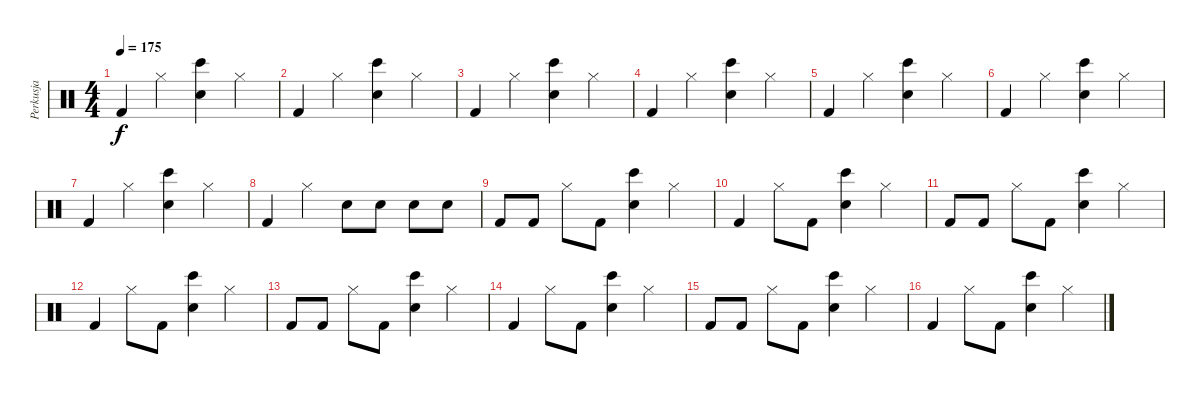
\track ("Perkusja" "Perkusja") {instrument percussion}
\staff {score}
\articulation defaults
\ts (4 4)
\tempo 175
\clef neutral
\ks c "Kick (hit) 2".4{dy f} "Hi-Hat (closed)".4
("Snare (hit) 2" "Bongo High (hit)").4 "Hi-Hat (closed)".4 |
"Kick (hit) 2".4 "Hi-Hat (closed)".4 ("Snare (hit) 2" "Bongo High (hit)").4 "Hi-Hat (closed)".4 |
"Kick (hit) 2".4 "Hi-Hat (closed)".4 ("Snare (hit) 2" "Bongo High (hit)").4 "Hi-Hat (closed)".4 |
"Kick (hit) 2".4 "Hi-Hat (closed)".4 ("Snare (hit) 2" "Bongo High (hit)").4 "Hi-Hat (closed)".4 |
"Kick (hit) 2".4 "Hi-Hat (closed)".4 ("Snare (hit) 2" "Bongo High (hit)").4 "Hi-Hat (closed)".4 |
"Kick (hit) 2".4 "Hi-Hat (closed)".4 ("Snare (hit) 2" "Bongo High (hit)").4 "Hi-Hat (closed)".4 |
"Kick (hit) 2".4 "Hi-Hat (closed)".4 ("Snare (hit) 2" "Bongo High (hit)").4 "Hi-Hat (closed)".4 |
"Kick (hit) 2".4 "Hi-Hat (closed)".4 "Snare (hit) 2".8 "Snare (hit) 2".8 "Snare (hit) 2".8 "Snare (hit) 2".8 |
"Kick (hit) 2".8 "Kick (hit) 2".8 "Hi-Hat (closed)".8 "Kick (hit) 2".8 ("Bongo High (hit)" "Snare (hit) 2").4 "Hi-Hat (closed)".4 |
"Kick (hit) 2".4 "Hi-Hat (closed)".8 "Kick (hit) 2".8 ("Bongo High (hit)" "Snare (hit) 2").4 "Hi-Hat (closed)".4 |
"Kick (hit) 2".8 "Kick (hit) 2".8 "Hi-Hat (closed)".8 "Kick (hit) 2".8 ("Bongo High (hit)" "Snare (hit) 2").4 "Hi-Hat (closed)".4 |
"Kick (hit) 2".4 "Hi-Hat (closed)".8 "Kick (hit) 2".8 ("Bongo High (hit)" "Snare (hit) 2").4 "Hi-Hat (closed)".4 |
"Kick (hit) 2".8 "Kick (hit) 2".8 "Hi-Hat (closed)".8 "Kick (hit) 2".8 ("Bongo High (hit)" "Snare (hit) 2").4 "Hi-Hat (closed)".4 |
"Kick (hit) 2".4 "Hi-Hat (closed)".8 "Kick (hit) 2".8 ("Bongo High (hit)" "Snare (hit) 2").4 "Hi-Hat (closed)".4 |
"Kick (hit) 2".8 "Kick (hit) 2".8 "Hi-Hat (closed)".8 "Kick (hit) 2".8 ("Bongo High (hit)" "Snare (hit) 2").4 "Hi-Hat (closed)".4 |
"Kick (hit) 2".4 "Hi-Hat (closed)".8 "Kick (hit) 2".8 ("Bongo High (hit)" "Snare (hit) 2").4 "Hi-Hat (closed)".4
